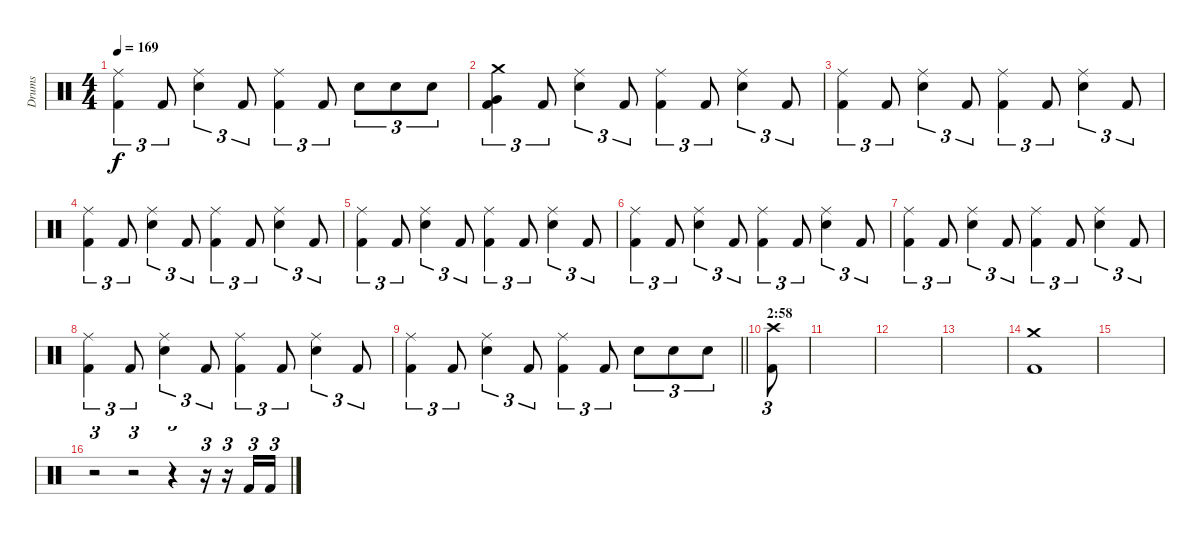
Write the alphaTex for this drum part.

\track ("Drums" "Drums") {instrument percussion}
\staff {score}
\articulation defaults
\ts (4 4)
\tempo 169
\clef neutral
\ks c
("Ride (middle)" "Kick (hit) 2").4{tu (3 2) dy f} "Kick (hit) 2".8{tu (3 2)} ("Ride (middle)" "Snare (hit) 2").4{tu (3 2)} "Kick (hit) 2".8{tu (3 2)} ("Ride (middle)" "Kick (hit) 2").4{tu (3 2)} "Kick (hit) 2".8{tu (3 2)} "Snare (hit) 2".8{tu (3 2)} "Snare (hit) 2".8{tu (3 2)} "Snare (hit) 2".8{tu (3 2)} |
("Very Low Tom (hit)" "Crash medium (hit)" "Kick (hit) 2").4{tu (3 2)} "Kick (hit) 2".8{tu (3 2)} ("Ride (middle)" "Snare (hit) 2").4{tu (3 2)} "Kick (hit) 2".8{tu (3 2)} ("Ride (middle)" "Kick (hit) 2").4{tu (3 2)} "Kick (hit) 2".8{tu (3 2)} ("Ride (middle)" "Snare (hit) 2").4{tu (3 2)} "Kick (hit) 2".8{tu (3 2)} |
("Ride (middle)" "Kick (hit) 2").4{tu (3 2)} "Kick (hit) 2".8{tu (3 2)} ("Ride (middle)" "Snare (hit) 2").4{tu (3 2)} "Kick (hit) 2".8{tu (3 2)} ("Ride (middle)" "Kick (hit) 2").4{tu (3 2)} "Kick (hit) 2".8{tu (3 2)} ("Ride (middle)" "Snare (hit) 2").4{tu (3 2)} "Kick (hit) 2".8{tu (3 2)} |
("Ride (middle)" "Kick (hit) 2").4{tu (3 2)} "Kick (hit) 2".8{tu (3 2)} ("Ride (middle)" "Snare (hit) 2").4{tu (3 2)} "Kick (hit) 2".8{tu (3 2)} ("Ride (middle)" "Kick (hit) 2").4{tu (3 2)} "Kick (hit) 2".8{tu (3 2)} ("Ride (middle)" "Snare (hit) 2").4{tu (3 2)} "Kick (hit) 2".8{tu (3 2)} |
("Ride (middle)" "Kick (hit) 2").4{tu (3 2)} "Kick (hit) 2".8{tu (3 2)} ("Ride (middle)" "Snare (hit) 2").4{tu (3 2)} "Kick (hit) 2".8{tu (3 2)} ("Ride (middle)" "Kick (hit) 2").4{tu (3 2)} "Kick (hit) 2".8{tu (3 2)} ("Ride (middle)" "Snare (hit) 2").4{tu (3 2)} "Kick (hit) 2".8{tu (3 2)} |
("Ride (middle)" "Kick (hit) 2").4{tu (3 2)} "Kick (hit) 2".8{tu (3 2)} ("Ride (middle)" "Snare (hit) 2").4{tu (3 2)} "Kick (hit) 2".8{tu (3 2)} ("Ride (middle)" "Kick (hit) 2").4{tu (3 2)} "Kick (hit) 2".8{tu (3 2)} ("Ride (middle)" "Snare (hit) 2").4{tu (3 2)} "Kick (hit) 2".8{tu (3 2)} |
("Ride (middle)" "Kick (hit) 2").4{tu (3 2)} "Kick (hit) 2".8{tu (3 2)} ("Ride (middle)" "Snare (hit) 2").4{tu (3 2)} "Kick (hit) 2".8{tu (3 2)} ("Ride (middle)" "Kick (hit) 2").4{tu (3 2)} "Kick (hit) 2".8{tu (3 2)} ("Ride (middle)" "Snare (hit) 2").4{tu (3 2)} "Kick (hit) 2".8{tu (3 2)} |
("Ride (middle)" "Kick (hit) 2").4{tu (3 2)} "Kick (hit) 2".8{tu (3 2)} ("Ride (middle)" "Snare (hit) 2").4{tu (3 2)} "Kick (hit) 2".8{tu (3 2)} ("Ride (middle)" "Kick (hit) 2").4{tu (3 2)} "Kick (hit) 2".8{tu (3 2)} ("Ride (middle)" "Snare (hit) 2").4{tu (3 2)} "Kick (hit) 2".8{tu (3 2)} |
\barLineRight lightlight
("Ride (middle)" "Kick (hit) 2").4{tu (3 2)} "Kick (hit) 2".8{tu (3 2)} ("Ride (middle)" "Snare (hit) 2").4{tu (3 2)} "Kick (hit) 2".8{tu (3 2)} ("Ride (middle)" "Kick (hit) 2").4{tu (3 2)} "Kick (hit) 2".8{tu (3 2)} "Snare (hit) 2".8{tu (3 2)} "Snare (hit) 2".8{tu (3 2)} "Snare (hit) 2".8{tu (3 2)} |
\section ("" "2:58")
("Crash high (hit)" "Kick (hit) 2").8{tu (3 2)} |
|
|
|
("Crash medium (hit)" "Kick (hit) 2").1 |
|
r.2{tu (3 2)} r.2{tu (3 2)} r.4{tu (3 2)} r.16{tu (3 2)} r.16{tu (3 2)} "Kick (hit) 2".16{tu (3 2)} "Kick (hit) 2".16{tu (3 2)}
